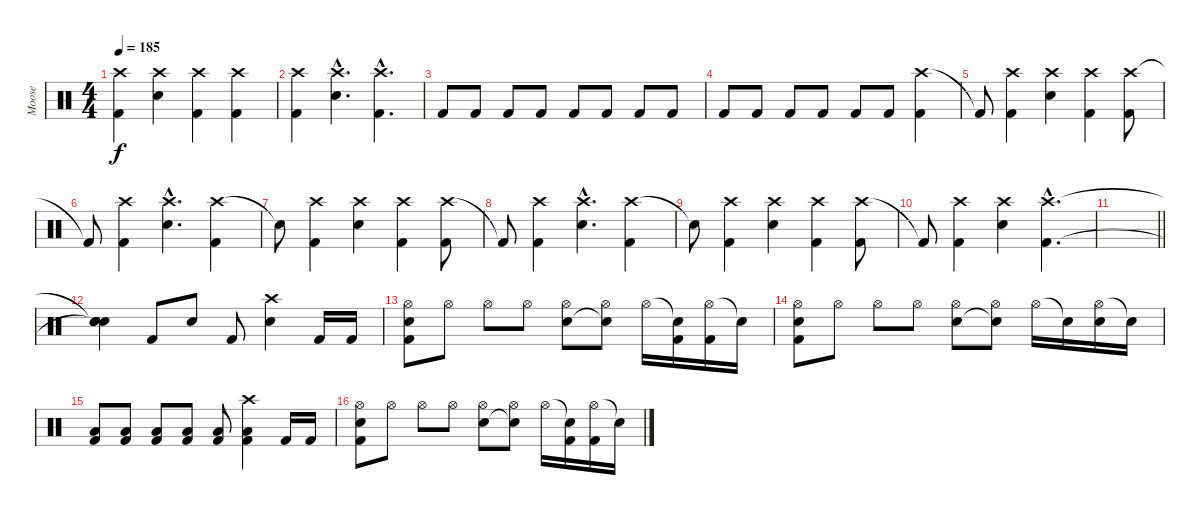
\track ("Moose" "Moose") {instrument percussion}
\staff {score}
\articulation defaults
\ts (4 4)
\tempo 185
\clef neutral
\ks c
("Crash high (hit)" "Kick (hit) 2").4{dy f} ("Crash high (hit)" "Snare (hit) 2").4 ("Crash high (hit)" "Kick (hit) 2").4 ("Crash high (hit)" "Kick (hit) 2").4 |
("Crash high (hit)" "Kick (hit) 2").4 ("Crash high (hit)"{hac} "Snare (hit) 2"{hac}).4{d} ("Crash high (hit)"{hac} "Kick (hit) 2"{hac}).4{d} |
"Kick (hit) 2".8 "Kick (hit) 2".8 "Kick (hit) 2".8 "Kick (hit) 2".8 "Kick (hit) 2".8 "Kick (hit) 2".8 "Kick (hit) 2".8 "Kick (hit) 2".8 |
"Kick (hit) 2".8 "Kick (hit) 2".8 "Kick (hit) 2".8 "Kick (hit) 2".8 "Kick (hit) 2".8 "Kick (hit) 2".8 ("Crash high (hit)" "Kick (hit) 2").4 |
"Kick (hit) 2"{t}.8 ("Crash high (hit)" "Kick (hit) 2").4 ("Crash high (hit)" "Snare (hit) 2").4 ("Crash high (hit)" "Kick (hit) 2").4 ("Crash high (hit)" "Kick (hit) 2").8 |
"Kick (hit) 2"{t}.8 ("Crash high (hit)" "Kick (hit) 2").4 ("Crash high (hit)"{hac} "Snare (hit) 2"{hac}).4{d} ("Crash high (hit)" "Kick (hit) 2").4 |
"Snare (hit)"{t}.8 ("Crash high (hit)" "Kick (hit) 2").4 ("Crash high (hit)" "Snare (hit) 2").4 ("Crash high (hit)" "Kick (hit) 2").4 ("Crash high (hit)" "Kick (hit) 2").8 |
"Kick (hit) 2"{t}.8 ("Crash high (hit)" "Kick (hit) 2").4 ("Crash high (hit)"{hac} "Snare (hit) 2"{hac}).4{d} ("Crash high (hit)" "Kick (hit) 2").4 |
"Snare (hit)"{t}.8 ("Crash high (hit)" "Kick (hit) 2").4 ("Crash high (hit)" "Snare (hit) 2").4 ("Crash high (hit)" "Kick (hit) 2").4 ("Crash high (hit)" "Kick (hit) 2").8 |
"Kick (hit) 2"{t}.8 ("Crash high (hit)" "Kick (hit) 2").4 ("Crash high (hit)" "Snare (hit) 2").4 ("Crash high (hit)"{hac} "Kick (hit) 2"{hac}).4{d} |
\barLineRight lightlight
|
("Snare (hit)"{t} "Snare (hit)"{t} "Snare (hit)" "Snare (hit)").4 "Kick (hit) 2".8 "Snare (hit) 2".8 "Kick (hit) 2".8 ("Crash high (hit)" "Snare (hit) 2").4 "Kick (hit) 2".16 "Kick (hit) 2".16 |
("Hi-Hat (open)" "Snare (hit) 2" "Kick (hit) 2").8 "Hi-Hat (open)".8 "Hi-Hat (open)".8 "Hi-Hat (open)".8 ("Hi-Hat (open)" "Snare (hit) 2").8 ("Hi-Hat (open)" "Snare (hit)"{t}).8 "Hi-Hat (open)".16 ("Snare (hit)"{t} "Kick (hit) 2").16 ("Hi-Hat (open)" "Kick (hit) 2").16 "Snare (hit)"{t}.16 |
("Hi-Hat (open)" "Snare (hit) 2" "Kick (hit) 2").8 "Hi-Hat (open)".8 "Hi-Hat (open)".8 "Hi-Hat (open)".8 ("Hi-Hat (open)" "Snare (hit) 2").8 ("Hi-Hat (open)" "Snare (hit)"{t}).8 "Hi-Hat (open)".16 "Snare (hit)"{t}.16 ("Hi-Hat (open)" "Snare (hit) 2").16 "Snare (hit)"{t}.16 |
("Low Tom (hit)" "Kick (hit) 2").8 ("Low Tom (hit)" "Kick (hit) 2").8 ("Low Tom (hit)" "Kick (hit) 2").8 ("Low Tom (hit)" "Kick (hit) 2").8 ("Low Tom (hit)" "Kick (hit) 2").8 ("Crash high (hit)" "Low Tom (hit)" "Kick (hit) 2").4 "Kick (hit) 2".16 "Kick (hit) 2".16 |
("Hi-Hat (open)" "Snare (hit) 2" "Kick (hit) 2").8 "Hi-Hat (open)".8 "Hi-Hat (open)".8 "Hi-Hat (open)".8 ("Hi-Hat (open)" "Snare (hit) 2").8 ("Hi-Hat (open)" "Snare (hit)"{t}).8 "Hi-Hat (open)".16 ("Snare (hit)"{t} "Kick (hit) 2").16 ("Hi-Hat (open)" "Kick (hit) 2").16 "Snare (hit)"{t}.16
